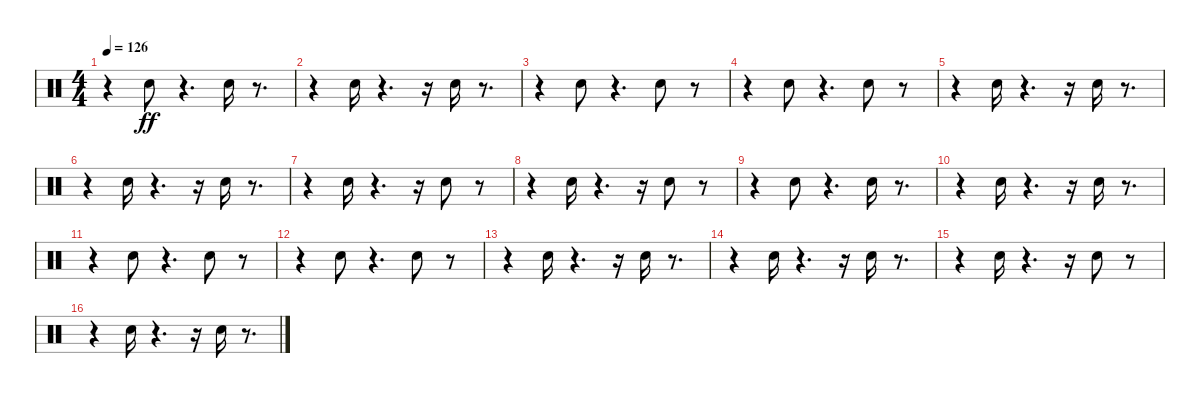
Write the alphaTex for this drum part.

\track "" {instrument percussion}
\staff {score}
\articulation defaults
\ts (4 4)
\tempo 126
\clef neutral
\ks c
r.4{dy ff} "Snare (hit) 2".8 r.4{d} "Snare (hit) 2".16 r.8{d} |
r.4 "Snare (hit) 2".16 r.4{d} r.16 "Snare (hit) 2".16 r.8{d} |
r.4 "Snare (hit) 2".8 r.4{d} "Snare (hit) 2".8 r.8 |
r.4 "Snare (hit) 2".8 r.4{d} "Snare (hit) 2".8 r.8 |
r.4 "Snare (hit) 2".16 r.4{d} r.16 "Snare (hit) 2".16 r.8{d} |
r.4 "Snare (hit) 2".16 r.4{d} r.16 "Snare (hit) 2".16 r.8{d} |
r.4 "Snare (hit) 2".16 r.4{d} r.16 "Snare (hit) 2".8 r.8 |
r.4 "Snare (hit) 2".16 r.4{d} r.16 "Snare (hit) 2".8 r.8 |
r.4 "Snare (hit) 2".8 r.4{d} "Snare (hit) 2".16 r.8{d} |
r.4 "Snare (hit) 2".16 r.4{d} r.16 "Snare (hit) 2".16 r.8{d} |
r.4 "Snare (hit) 2".8 r.4{d} "Snare (hit) 2".8 r.8 |
r.4 "Snare (hit) 2".8 r.4{d} "Snare (hit) 2".8 r.8 |
r.4 "Snare (hit) 2".16 r.4{d} r.16 "Snare (hit) 2".16 r.8{d} |
r.4 "Snare (hit) 2".16 r.4{d} r.16 "Snare (hit) 2".16 r.8{d} |
r.4 "Snare (hit) 2".16 r.4{d} r.16 "Snare (hit) 2".8 r.8 |
r.4 "Snare (hit) 2".16 r.4{d} r.16 "Snare (hit) 2".16 r.8{d}
